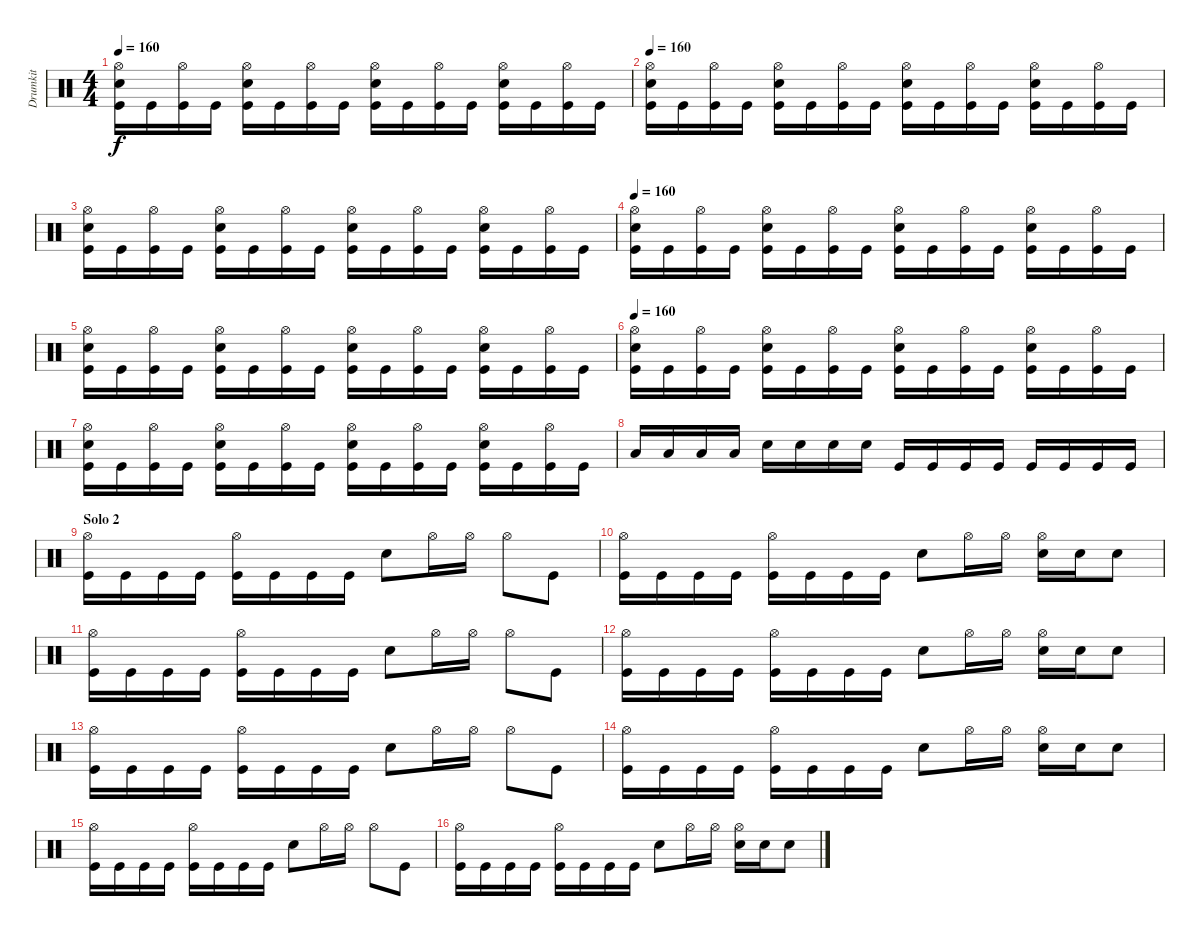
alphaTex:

\track ("Drumkit" "Drumkit") {instrument percussion}
\staff {score}
\articulation defaults
\ts (4 4)
\tempo 160
\clef neutral
\ks c
("Hi-Hat (open)" "Snare (hit) 2" "Kick (hit)").16{dy f} "Kick (hit)".16 ("Hi-Hat (open)" "Kick (hit)").16 "Kick (hit)".16 ("Hi-Hat (open)" "Snare (hit) 2" "Kick (hit)").16 "Kick (hit)".16 ("Hi-Hat (open)" "Kick (hit)").16 "Kick (hit)".16 ("Hi-Hat (open)" "Snare (hit) 2" "Kick (hit)").16 "Kick (hit)".16 ("Hi-Hat (open)" "Kick (hit)").16 "Kick (hit)".16 ("Hi-Hat (open)" "Snare (hit) 2" "Kick (hit)").16 "Kick (hit)".16 ("Hi-Hat (open)" "Kick (hit)").16 "Kick (hit)".16 |
\tempo 160
("Hi-Hat (open)" "Snare (hit) 2" "Kick (hit)").16 "Kick (hit)".16 ("Hi-Hat (open)" "Kick (hit)").16 "Kick (hit)".16 ("Hi-Hat (open)" "Snare (hit) 2" "Kick (hit)").16 "Kick (hit)".16 ("Hi-Hat (open)" "Kick (hit)").16 "Kick (hit)".16 ("Hi-Hat (open)" "Snare (hit) 2" "Kick (hit)").16 "Kick (hit)".16 ("Hi-Hat (open)" "Kick (hit)").16 "Kick (hit)".16 ("Hi-Hat (open)" "Snare (hit) 2" "Kick (hit)").16 "Kick (hit)".16 ("Hi-Hat (open)" "Kick (hit)").16 "Kick (hit)".16 |
("Hi-Hat (open)" "Snare (hit) 2" "Kick (hit)").16 "Kick (hit)".16 ("Hi-Hat (open)" "Kick (hit)").16 "Kick (hit)".16 ("Hi-Hat (open)" "Snare (hit) 2" "Kick (hit)").16 "Kick (hit)".16 ("Hi-Hat (open)" "Kick (hit)").16 "Kick (hit)".16 ("Hi-Hat (open)" "Snare (hit) 2" "Kick (hit)").16 "Kick (hit)".16 ("Hi-Hat (open)" "Kick (hit)").16 "Kick (hit)".16 ("Hi-Hat (open)" "Snare (hit) 2" "Kick (hit)").16 "Kick (hit)".16 ("Hi-Hat (open)" "Kick (hit)").16 "Kick (hit)".16 |
\tempo 160
("Hi-Hat (open)" "Snare (hit) 2" "Kick (hit)").16 "Kick (hit)".16 ("Hi-Hat (open)" "Kick (hit)").16 "Kick (hit)".16 ("Hi-Hat (open)" "Snare (hit) 2" "Kick (hit)").16 "Kick (hit)".16 ("Hi-Hat (open)" "Kick (hit)").16 "Kick (hit)".16 ("Hi-Hat (open)" "Snare (hit) 2" "Kick (hit)").16 "Kick (hit)".16 ("Hi-Hat (open)" "Kick (hit)").16 "Kick (hit)".16 ("Hi-Hat (open)" "Snare (hit) 2" "Kick (hit)").16 "Kick (hit)".16 ("Hi-Hat (open)" "Kick (hit)").16 "Kick (hit)".16 |
("Hi-Hat (open)" "Snare (hit) 2" "Kick (hit)").16 "Kick (hit)".16 ("Hi-Hat (open)" "Kick (hit)").16 "Kick (hit)".16 ("Hi-Hat (open)" "Snare (hit) 2" "Kick (hit)").16 "Kick (hit)".16 ("Hi-Hat (open)" "Kick (hit)").16 "Kick (hit)".16 ("Hi-Hat (open)" "Snare (hit) 2" "Kick (hit)").16 "Kick (hit)".16 ("Hi-Hat (open)" "Kick (hit)").16 "Kick (hit)".16 ("Hi-Hat (open)" "Snare (hit) 2" "Kick (hit)").16 "Kick (hit)".16 ("Hi-Hat (open)" "Kick (hit)").16 "Kick (hit)".16 |
\tempo 160
("Hi-Hat (open)" "Snare (hit) 2" "Kick (hit)").16 "Kick (hit)".16 ("Hi-Hat (open)" "Kick (hit)").16 "Kick (hit)".16 ("Hi-Hat (open)" "Snare (hit) 2" "Kick (hit)").16 "Kick (hit)".16 ("Hi-Hat (open)" "Kick (hit)").16 "Kick (hit)".16 ("Hi-Hat (open)" "Snare (hit) 2" "Kick (hit)").16 "Kick (hit)".16 ("Hi-Hat (open)" "Kick (hit)").16 "Kick (hit)".16 ("Hi-Hat (open)" "Snare (hit) 2" "Kick (hit)").16 "Kick (hit)".16 ("Hi-Hat (open)" "Kick (hit)").16 "Kick (hit)".16 |
("Hi-Hat (open)" "Snare (hit) 2" "Kick (hit)").16 "Kick (hit)".16 ("Hi-Hat (open)" "Kick (hit)").16 "Kick (hit)".16 ("Hi-Hat (open)" "Snare (hit) 2" "Kick (hit)").16 "Kick (hit)".16 ("Hi-Hat (open)" "Kick (hit)").16 "Kick (hit)".16 ("Hi-Hat (open)" "Snare (hit) 2" "Kick (hit)").16 "Kick (hit)".16 ("Hi-Hat (open)" "Kick (hit)").16 "Kick (hit)".16 ("Hi-Hat (open)" "Snare (hit) 2" "Kick (hit)").16 "Kick (hit)".16 ("Hi-Hat (open)" "Kick (hit)").16 "Kick (hit)".16 |
"Low Floor Tom (hit)".16 "Low Floor Tom (hit)".16 "Low Floor Tom (hit)".16 "Low Floor Tom (hit)".16 "Snare (hit) 2".16 "Snare (hit) 2".16 "Snare (hit) 2".16 "Snare (hit) 2".16 "Kick (hit)".16 "Kick (hit)".16 "Kick (hit)".16 "Kick (hit)".16 "Kick (hit)".16 "Kick (hit)".16 "Kick (hit)".16 "Kick (hit)".16 |
\section ("" "Solo 2")
("Hi-Hat (open)" "Kick (hit)").16 "Kick (hit)".16 "Kick (hit)".16 "Kick (hit)".16 ("Hi-Hat (open)" "Kick (hit)").16 "Kick (hit)".16 "Kick (hit)".16 "Kick (hit)".16 "Snare (hit) 2".8 "Hi-Hat (open)".16 "Hi-Hat (open)".16 "Hi-Hat (open)".8 "Kick (hit)".8 |
("Hi-Hat (open)" "Kick (hit)").16 "Kick (hit)".16 "Kick (hit)".16 "Kick (hit)".16 ("Hi-Hat (open)" "Kick (hit)").16 "Kick (hit)".16 "Kick (hit)".16 "Kick (hit)".16 "Snare (hit) 2".8 "Hi-Hat (open)".16 "Hi-Hat (open)".16 ("Hi-Hat (open)" "Snare (hit) 2").16 "Snare (hit) 2".16 "Snare (hit) 2".8 |
("Hi-Hat (open)" "Kick (hit)").16 "Kick (hit)".16 "Kick (hit)".16 "Kick (hit)".16 ("Hi-Hat (open)" "Kick (hit)").16 "Kick (hit)".16 "Kick (hit)".16 "Kick (hit)".16 "Snare (hit) 2".8 "Hi-Hat (open)".16 "Hi-Hat (open)".16 "Hi-Hat (open)".8 "Kick (hit)".8 |
("Hi-Hat (open)" "Kick (hit)").16 "Kick (hit)".16 "Kick (hit)".16 "Kick (hit)".16 ("Hi-Hat (open)" "Kick (hit)").16 "Kick (hit)".16 "Kick (hit)".16 "Kick (hit)".16 "Snare (hit) 2".8 "Hi-Hat (open)".16 "Hi-Hat (open)".16 ("Hi-Hat (open)" "Snare (hit) 2").16 "Snare (hit) 2".16 "Snare (hit) 2".8 |
("Hi-Hat (open)" "Kick (hit)").16 "Kick (hit)".16 "Kick (hit)".16 "Kick (hit)".16 ("Hi-Hat (open)" "Kick (hit)").16 "Kick (hit)".16 "Kick (hit)".16 "Kick (hit)".16 "Snare (hit) 2".8 "Hi-Hat (open)".16 "Hi-Hat (open)".16 "Hi-Hat (open)".8 "Kick (hit)".8 |
("Hi-Hat (open)" "Kick (hit)").16 "Kick (hit)".16 "Kick (hit)".16 "Kick (hit)".16 ("Hi-Hat (open)" "Kick (hit)").16 "Kick (hit)".16 "Kick (hit)".16 "Kick (hit)".16 "Snare (hit) 2".8 "Hi-Hat (open)".16 "Hi-Hat (open)".16 ("Hi-Hat (open)" "Snare (hit) 2").16 "Snare (hit) 2".16 "Snare (hit) 2".8 |
("Hi-Hat (open)" "Kick (hit)").16 "Kick (hit)".16 "Kick (hit)".16 "Kick (hit)".16 ("Hi-Hat (open)" "Kick (hit)").16 "Kick (hit)".16 "Kick (hit)".16 "Kick (hit)".16 "Snare (hit) 2".8 "Hi-Hat (open)".16 "Hi-Hat (open)".16 "Hi-Hat (open)".8 "Kick (hit)".8 |
("Hi-Hat (open)" "Kick (hit)").16 "Kick (hit)".16 "Kick (hit)".16 "Kick (hit)".16 ("Hi-Hat (open)" "Kick (hit)").16 "Kick (hit)".16 "Kick (hit)".16 "Kick (hit)".16 "Snare (hit) 2".8 "Hi-Hat (open)".16 "Hi-Hat (open)".16 ("Hi-Hat (open)" "Snare (hit) 2").16 "Snare (hit) 2".16 "Snare (hit) 2".8
